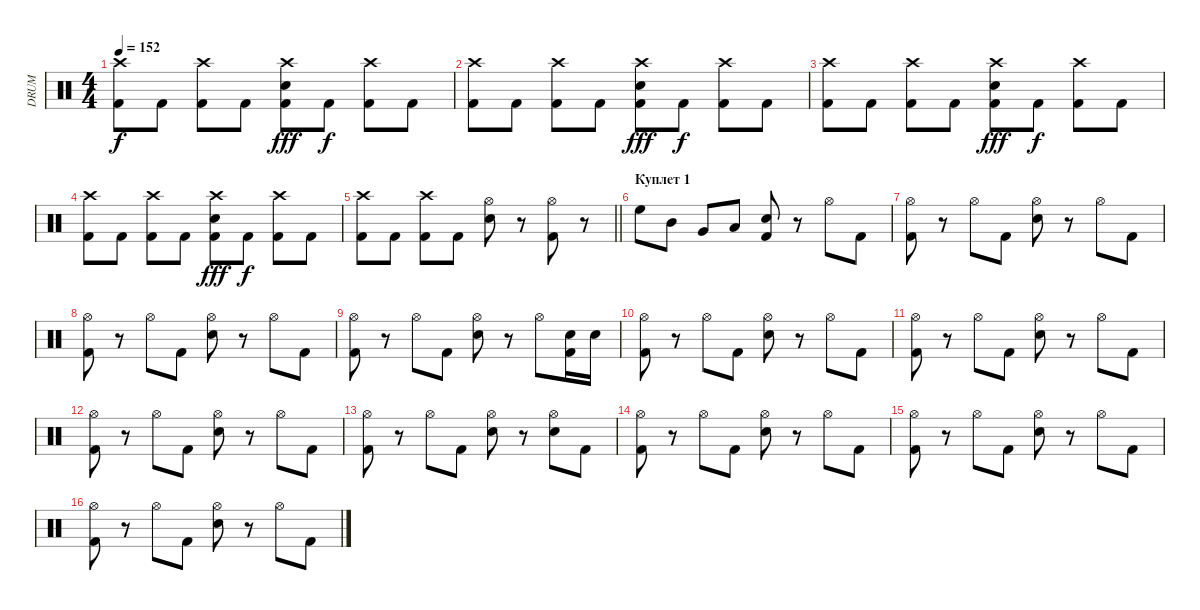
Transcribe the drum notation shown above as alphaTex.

\track ("DRUM" "DRUM") {instrument percussion}
\staff {score}
\articulation defaults
\ts (4 4)
\tempo 152
\clef neutral
\ks c
("Crash high (hit)" "Kick (hit) 2").8{dy f} "Kick (hit) 2".8 ("Crash high (hit)" "Kick (hit) 2").8 "Kick (hit) 2".8 ("Electric Snare (hit)" "Crash high (hit)" "Kick (hit) 2").8{dy fff} "Kick (hit) 2".8{dy f} ("Crash high (hit)" "Kick (hit) 2").8 "Kick (hit) 2".8 |
("Crash high (hit)" "Kick (hit) 2").8 "Kick (hit) 2".8 ("Crash high (hit)" "Kick (hit) 2").8 "Kick (hit) 2".8 ("Electric Snare (hit)" "Crash high (hit)" "Kick (hit) 2").8{dy fff} "Kick (hit) 2".8{dy f} ("Crash high (hit)" "Kick (hit) 2").8 "Kick (hit) 2".8 |
("Crash high (hit)" "Kick (hit) 2").8 "Kick (hit) 2".8 ("Crash high (hit)" "Kick (hit) 2").8 "Kick (hit) 2".8 ("Electric Snare (hit)" "Crash high (hit)" "Kick (hit) 2").8{dy fff} "Kick (hit) 2".8{dy f} ("Crash high (hit)" "Kick (hit) 2").8 "Kick (hit) 2".8 |
("Crash high (hit)" "Kick (hit) 2").8 "Kick (hit) 2".8 ("Crash high (hit)" "Kick (hit) 2").8 "Kick (hit) 2".8 ("Electric Snare (hit)" "Crash high (hit)" "Kick (hit) 2").8{dy fff} "Kick (hit) 2".8{dy f} ("Crash high (hit)" "Kick (hit) 2").8 "Kick (hit) 2".8 |
\barLineRight lightlight
("Crash high (hit)" "Kick (hit) 2").8 "Kick (hit) 2".8 ("Crash high (hit)" "Kick (hit) 2").8 "Kick (hit) 2".8 ("Hi-Hat (open)" "Electric Snare (hit)").8 r.8 ("Kick (hit) 2" "Hi-Hat (open)").8 r.8 |
\section ("" "Куплет 1")
"High Floor Tom (hit)".8 "Mid Tom (hit)".8 "Very Low Tom (hit)".8 "Low Floor Tom (hit)".8 ("Kick (hit) 2" "Electric Snare (hit)").8 r.8 "Hi-Hat (open)".8 "Kick (hit) 2".8 |
("Kick (hit) 2" "Hi-Hat (open)").8 r.8 "Hi-Hat (open)".8 "Kick (hit) 2".8 ("Electric Snare (hit)" "Hi-Hat (open)").8 r.8 "Hi-Hat (open)".8 "Kick (hit) 2".8 |
("Kick (hit) 2" "Hi-Hat (open)").8 r.8 "Hi-Hat (open)".8 "Kick (hit) 2".8 ("Electric Snare (hit)" "Hi-Hat (open)").8 r.8 "Hi-Hat (open)".8 "Kick (hit) 2".8 |
("Kick (hit) 2" "Hi-Hat (open)").8 r.8 "Hi-Hat (open)".8 "Kick (hit) 2".8 ("Electric Snare (hit)" "Hi-Hat (open)").8 r.8 "Hi-Hat (open)".8 ("Electric Snare (hit)" "Kick (hit) 2").16 "Electric Snare (hit)".16 |
("Kick (hit) 2" "Hi-Hat (open)").8 r.8 "Hi-Hat (open)".8 "Kick (hit) 2".8 ("Electric Snare (hit)" "Hi-Hat (open)").8 r.8 "Hi-Hat (open)".8 "Kick (hit) 2".8 |
("Kick (hit) 2" "Hi-Hat (open)").8 r.8 "Hi-Hat (open)".8 "Kick (hit) 2".8 ("Electric Snare (hit)" "Hi-Hat (open)").8 r.8 "Hi-Hat (open)".8 "Kick (hit) 2".8 |
("Kick (hit) 2" "Hi-Hat (open)").8 r.8 "Hi-Hat (open)".8 "Kick (hit) 2".8 ("Electric Snare (hit)" "Hi-Hat (open)").8 r.8 "Hi-Hat (open)".8 "Kick (hit) 2".8 |
("Kick (hit) 2" "Hi-Hat (open)").8 r.8 "Hi-Hat (open)".8 "Kick (hit) 2".8 ("Electric Snare (hit)" "Hi-Hat (open)").8 r.8 ("Electric Snare (hit)" "Hi-Hat (open)").8 "Kick (hit) 2".8 |
("Kick (hit) 2" "Hi-Hat (open)").8 r.8 "Hi-Hat (open)".8 "Kick (hit) 2".8 ("Electric Snare (hit)" "Hi-Hat (open)").8 r.8 "Hi-Hat (open)".8 "Kick (hit) 2".8 |
("Kick (hit) 2" "Hi-Hat (open)").8 r.8 "Hi-Hat (open)".8 "Kick (hit) 2".8 ("Electric Snare (hit)" "Hi-Hat (open)").8 r.8 "Hi-Hat (open)".8 "Kick (hit) 2".8 |
("Kick (hit) 2" "Hi-Hat (open)").8 r.8 "Hi-Hat (open)".8 "Kick (hit) 2".8 ("Electric Snare (hit)" "Hi-Hat (open)").8 r.8 "Hi-Hat (open)".8 "Kick (hit) 2".8
